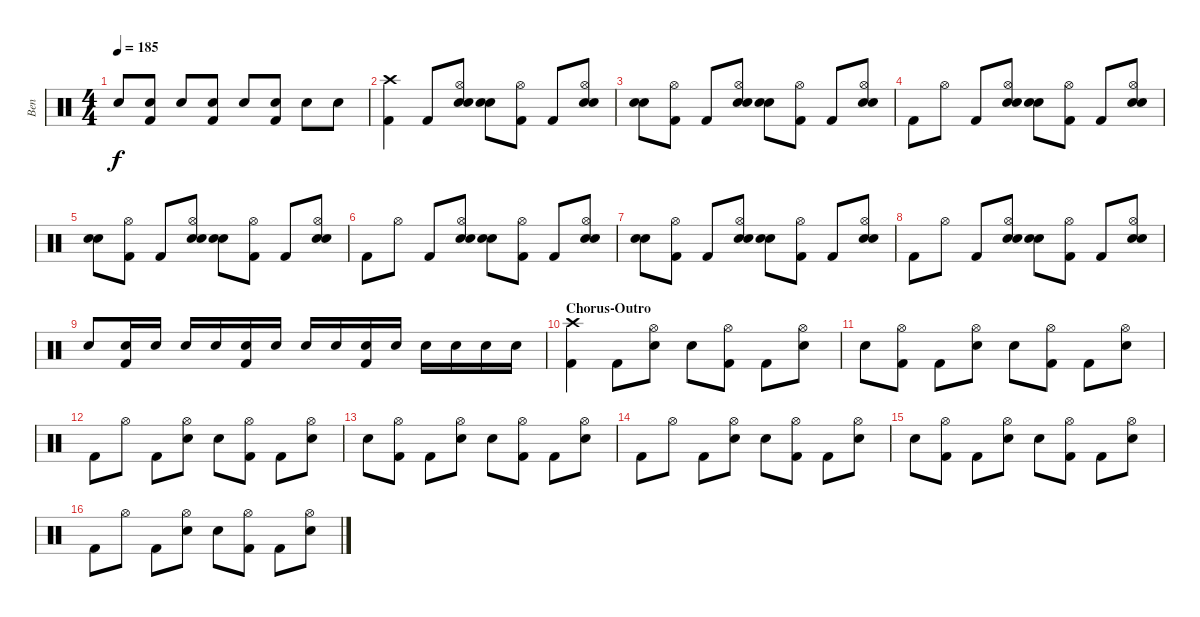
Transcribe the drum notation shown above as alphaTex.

\track ("Ben" "Ben") {instrument percussion}
\staff {score}
\articulation defaults
\ts (4 4)
\tempo 185
\clef neutral
\ks c "Electric Snare (hit)".8{dy f}
("Electric Snare (hit)" "Kick (hit) 2").8 "Electric Snare (hit)".8 ("Electric Snare (hit)" "Kick (hit) 2").8 "Electric Snare (hit)".8 ("Electric Snare (hit)" "Kick (hit) 2").8 "Electric Snare (hit)".8 "Electric Snare (hit)".8 |
("Crash high (hit)" "Kick (hit) 2").4 "Kick (hit) 2".8 ("Hi-Hat (open)" "Electric Snare (hit)" "Hand Clap (hit)").8 ("Electric Snare (hit)" "Hand Clap (hit)").8 ("Hi-Hat (open)" "Kick (hit) 2").8 "Kick (hit) 2".8 ("Hi-Hat (open)" "Electric Snare (hit)" "Hand Clap (hit)").8 |
("Electric Snare (hit)" "Hand Clap (hit)").8 ("Hi-Hat (open)" "Kick (hit) 2").8 "Kick (hit) 2".8 ("Hi-Hat (open)" "Electric Snare (hit)" "Hand Clap (hit)").8 ("Electric Snare (hit)" "Hand Clap (hit)").8 ("Hi-Hat (open)" "Kick (hit) 2").8 "Kick (hit) 2".8 ("Hi-Hat (open)" "Electric Snare (hit)" "Hand Clap (hit)").8 |
"Kick (hit) 2".8 "Hi-Hat (open)".8 "Kick (hit) 2".8 ("Hi-Hat (open)" "Electric Snare (hit)" "Hand Clap (hit)").8 ("Electric Snare (hit)" "Hand Clap (hit)").8 ("Hi-Hat (open)" "Kick (hit) 2").8 "Kick (hit) 2".8 ("Hi-Hat (open)" "Electric Snare (hit)" "Hand Clap (hit)").8 |
("Electric Snare (hit)" "Hand Clap (hit)").8 ("Hi-Hat (open)" "Kick (hit) 2").8 "Kick (hit) 2".8 ("Hi-Hat (open)" "Electric Snare (hit)" "Hand Clap (hit)").8 ("Electric Snare (hit)" "Hand Clap (hit)").8 ("Hi-Hat (open)" "Kick (hit) 2").8 "Kick (hit) 2".8 ("Hi-Hat (open)" "Electric Snare (hit)" "Hand Clap (hit)").8 |
"Kick (hit) 2".8 "Hi-Hat (open)".8 "Kick (hit) 2".8 ("Hi-Hat (open)" "Electric Snare (hit)" "Hand Clap (hit)").8 ("Electric Snare (hit)" "Hand Clap (hit)").8 ("Hi-Hat (open)" "Kick (hit) 2").8 "Kick (hit) 2".8 ("Hi-Hat (open)" "Electric Snare (hit)" "Hand Clap (hit)").8 |
("Electric Snare (hit)" "Hand Clap (hit)").8 ("Hi-Hat (open)" "Kick (hit) 2").8 "Kick (hit) 2".8 ("Hi-Hat (open)" "Electric Snare (hit)" "Hand Clap (hit)").8 ("Electric Snare (hit)" "Hand Clap (hit)").8 ("Hi-Hat (open)" "Kick (hit) 2").8 "Kick (hit) 2".8 ("Hi-Hat (open)" "Electric Snare (hit)" "Hand Clap (hit)").8 |
"Kick (hit) 2".8 "Hi-Hat (open)".8 "Kick (hit) 2".8 ("Hi-Hat (open)" "Electric Snare (hit)" "Hand Clap (hit)").8 ("Electric Snare (hit)" "Hand Clap (hit)").8 ("Hi-Hat (open)" "Kick (hit) 2").8 "Kick (hit) 2".8 ("Hi-Hat (open)" "Electric Snare (hit)" "Hand Clap (hit)").8 |
"Electric Snare (hit)".8 ("Electric Snare (hit)" "Kick (hit) 2").16 "Electric Snare (hit)".16 "Electric Snare (hit)".16 "Electric Snare (hit)".16 ("Electric Snare (hit)" "Kick (hit) 2").16 "Electric Snare (hit)".16 "Electric Snare (hit)".16 "Electric Snare (hit)".16 ("Electric Snare (hit)" "Kick (hit) 2").16 "Electric Snare (hit)".16 "Electric Snare (hit)".16 "Electric Snare (hit)".16 "Electric Snare (hit)".16 "Electric Snare (hit)".16 |
\section ("" "Chorus-Outro")
("Crash high (hit)" "Kick (hit) 2").4 "Kick (hit) 2".8 ("Hi-Hat (open)" "Electric Snare (hit)").8 "Electric Snare (hit)".8 ("Hi-Hat (open)" "Kick (hit) 2").8 "Kick (hit) 2".8 ("Hi-Hat (open)" "Electric Snare (hit)").8 |
"Electric Snare (hit)".8 ("Hi-Hat (open)" "Kick (hit) 2").8 "Kick (hit) 2".8 ("Hi-Hat (open)" "Electric Snare (hit)").8 "Electric Snare (hit)".8 ("Hi-Hat (open)" "Kick (hit) 2").8 "Kick (hit) 2".8 ("Hi-Hat (open)" "Electric Snare (hit)").8 |
"Kick (hit) 2".8 "Hi-Hat (open)".8 "Kick (hit) 2".8 ("Hi-Hat (open)" "Electric Snare (hit)").8 "Electric Snare (hit)".8 ("Hi-Hat (open)" "Kick (hit) 2").8 "Kick (hit) 2".8 ("Hi-Hat (open)" "Electric Snare (hit)").8 |
"Electric Snare (hit)".8 ("Hi-Hat (open)" "Kick (hit) 2").8 "Kick (hit) 2".8 ("Hi-Hat (open)" "Electric Snare (hit)").8 "Electric Snare (hit)".8 ("Hi-Hat (open)" "Kick (hit) 2").8 "Kick (hit) 2".8 ("Hi-Hat (open)" "Electric Snare (hit)").8 |
"Kick (hit) 2".8 "Hi-Hat (open)".8 "Kick (hit) 2".8 ("Hi-Hat (open)" "Electric Snare (hit)").8 "Electric Snare (hit)".8 ("Hi-Hat (open)" "Kick (hit) 2").8 "Kick (hit) 2".8 ("Hi-Hat (open)" "Electric Snare (hit)").8 |
"Electric Snare (hit)".8 ("Hi-Hat (open)" "Kick (hit) 2").8 "Kick (hit) 2".8 ("Hi-Hat (open)" "Electric Snare (hit)").8 "Electric Snare (hit)".8 ("Hi-Hat (open)" "Kick (hit) 2").8 "Kick (hit) 2".8 ("Hi-Hat (open)" "Electric Snare (hit)").8 |
"Kick (hit) 2".8 "Hi-Hat (open)".8 "Kick (hit) 2".8 ("Hi-Hat (open)" "Electric Snare (hit)").8 "Electric Snare (hit)".8 ("Hi-Hat (open)" "Kick (hit) 2").8 "Kick (hit) 2".8 ("Hi-Hat (open)" "Electric Snare (hit)").8
